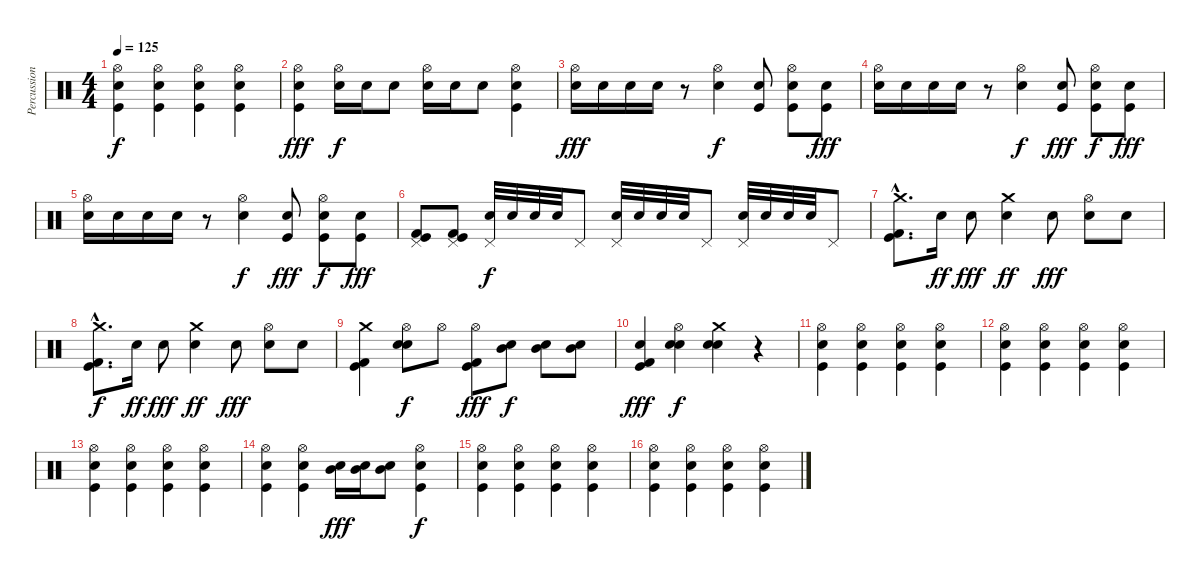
\track ("Percussion" "Percussion") {instrument percussion}
\staff {score}
\articulation defaults
\ts (4 4)
\tempo 125
\clef neutral
\ks c
("Hi-Hat (open)" "Snare (hit) 2" "Kick (hit)").4{dy f} ("Hi-Hat (open)" "Snare (hit) 2" "Kick (hit)").4 ("Hi-Hat (open)" "Snare (hit) 2" "Kick (hit)").4 ("Hi-Hat (open)" "Snare (hit) 2" "Kick (hit)").4 |
("Hi-Hat (open)" "Electric Snare (hit)" "Kick (hit)").4{dy fff} ("Hi-Hat (open)" "Snare (hit) 2").16{dy f} "Snare (hit) 2".16 "Snare (hit) 2".8 ("Hi-Hat (open)" "Snare (hit) 2").16 "Snare (hit) 2".16 "Snare (hit) 2".8 ("Hi-Hat (open)" "Snare (hit) 2" "Kick (hit)").4 |
("Hi-Hat (open)" "Electric Snare (hit)").16{dy fff} "Electric Snare (hit)".16 "Electric Snare (hit)".16 "Electric Snare (hit)".16 r.8 ("Hi-Hat (open)" "Snare (hit) 2").4{dy f} ("Electric Snare (hit)" "Kick (hit)").8 ("Hi-Hat (open)" "Snare (hit) 2" "Kick (hit)").8 ("Electric Snare (hit)" "Kick (hit)").8{dy fff} |
("Hi-Hat (open)" "Electric Snare (hit)").16 "Electric Snare (hit)".16 "Electric Snare (hit)".16 "Electric Snare (hit)".16 r.8 ("Hi-Hat (open)" "Snare (hit) 2").4{dy f} ("Electric Snare (hit)" "Kick (hit)").8{dy fff} ("Hi-Hat (open)" "Snare (hit) 2" "Kick (hit)").8{dy f} ("Electric Snare (hit)" "Kick (hit)").8{dy fff} |
("Hi-Hat (open)" "Electric Snare (hit)").16 "Electric Snare (hit)".16 "Electric Snare (hit)".16 "Electric Snare (hit)".16 r.8 ("Hi-Hat (open)" "Snare (hit) 2").4{dy f} ("Electric Snare (hit)" "Kick (hit)").8{dy fff} ("Hi-Hat (open)" "Snare (hit) 2" "Kick (hit)").8{dy f} ("Electric Snare (hit)" "Kick (hit)").8{dy fff} |
("Pedal Hi-Hat (hit)" "Kick (hit)" "Kick (hit) 2").8 ("Pedal Hi-Hat (hit)" "Kick (hit)" "Kick (hit) 2").8 ("Pedal Hi-Hat (hit)" "Electric Snare (hit)").32{dy f} "Electric Snare (hit)".32 "Electric Snare (hit)".32 "Electric Snare (hit)".32 "Pedal Hi-Hat (hit)".8 ("Pedal Hi-Hat (hit)" "Electric Snare (hit)").32 "Electric Snare (hit)".32 "Electric Snare (hit)".32 "Electric Snare (hit)".32 "Pedal Hi-Hat (hit)".8 ("Pedal Hi-Hat (hit)" "Electric Snare (hit)").32 "Electric Snare (hit)".32 "Electric Snare (hit)".32 "Electric Snare (hit)".32 "Pedal Hi-Hat (hit)".8 |
("Crash medium (hit)"{hac} "Kick (hit)"{hac} "Kick (hit) 2"{hac}).8{d} "Snare (hit) 2".16{dy ff} "Electric Snare (hit)".8{dy fff} ("Crash medium (hit)" "Electric Snare (hit)").4{dy ff} "Snare (hit) 2".8{dy fff} ("Hi-Hat (open)" "Electric Snare (hit)").8 "Snare (hit) 2".8 |
("Crash medium (hit)"{hac} "Kick (hit)"{hac} "Kick (hit) 2"{hac}).8{d dy f} "Snare (hit) 2".16{dy ff} "Electric Snare (hit)".8{dy fff} ("Crash medium (hit)" "Electric Snare (hit)").4{dy ff} "Snare (hit) 2".8{dy fff} ("Hi-Hat (open)" "Electric Snare (hit)").8 "Snare (hit) 2".8 |
("Crash medium (hit)" "Kick (hit)" "Kick (hit) 2").4 ("Hi-Hat (open)" "Snare (hit) 2" "Electric Snare (hit)").8{dy f} "Hi-Hat (open)".8 ("Hi-Hat (open)" "Kick (hit)" "Kick (hit) 2").8{dy fff} ("Mid Tom (hit)" "Snare (hit) 2").8{dy f} ("Mid Tom (hit)" "Snare (hit) 2").8 ("Mid Tom (hit)" "Snare (hit) 2").8 |
("Snare (hit) 2" "Kick (hit)" "Kick (hit) 2").4{dy fff} ("Hi-Hat (open)" "Snare (hit) 2" "Electric Snare (hit)").4{dy f} ("Crash medium (hit)" "Snare (hit) 2" "Electric Snare (hit)").4 r.4 |
("Hi-Hat (open)" "Snare (hit) 2" "Kick (hit)").4 ("Hi-Hat (open)" "Snare (hit) 2" "Kick (hit)").4 ("Hi-Hat (open)" "Snare (hit) 2" "Kick (hit)").4 ("Hi-Hat (open)" "Snare (hit) 2" "Kick (hit)").4 |
("Hi-Hat (open)" "Snare (hit) 2" "Kick (hit)").4 ("Hi-Hat (open)" "Snare (hit) 2" "Kick (hit)").4 ("Hi-Hat (open)" "Snare (hit) 2" "Kick (hit)").4 ("Hi-Hat (open)" "Snare (hit) 2" "Kick (hit)").4 |
("Hi-Hat (open)" "Snare (hit) 2" "Kick (hit)").4 ("Hi-Hat (open)" "Snare (hit) 2" "Kick (hit)").4 ("Hi-Hat (open)" "Snare (hit) 2" "Kick (hit)").4 ("Hi-Hat (open)" "Snare (hit) 2" "Kick (hit)").4 |
("Hi-Hat (open)" "Snare (hit) 2" "Kick (hit)").4 ("Hi-Hat (open)" "Snare (hit) 2" "Kick (hit)").4 ("Mid Tom (hit)" "Electric Snare (hit)").16{dy fff} ("Mid Tom (hit)" "Electric Snare (hit)").16 ("Mid Tom (hit)" "Electric Snare (hit)").8 ("Hi-Hat (open)" "Snare (hit) 2" "Kick (hit)").4{dy f} |
("Hi-Hat (open)" "Snare (hit) 2" "Kick (hit)").4 ("Hi-Hat (open)" "Snare (hit) 2" "Kick (hit)").4 ("Hi-Hat (open)" "Snare (hit) 2" "Kick (hit)").4 ("Hi-Hat (open)" "Snare (hit) 2" "Kick (hit)").4 |
("Hi-Hat (open)" "Snare (hit) 2" "Kick (hit)").4 ("Hi-Hat (open)" "Snare (hit) 2" "Kick (hit)").4 ("Hi-Hat (open)" "Snare (hit) 2" "Kick (hit)").4 ("Hi-Hat (open)" "Snare (hit) 2" "Kick (hit)").4
